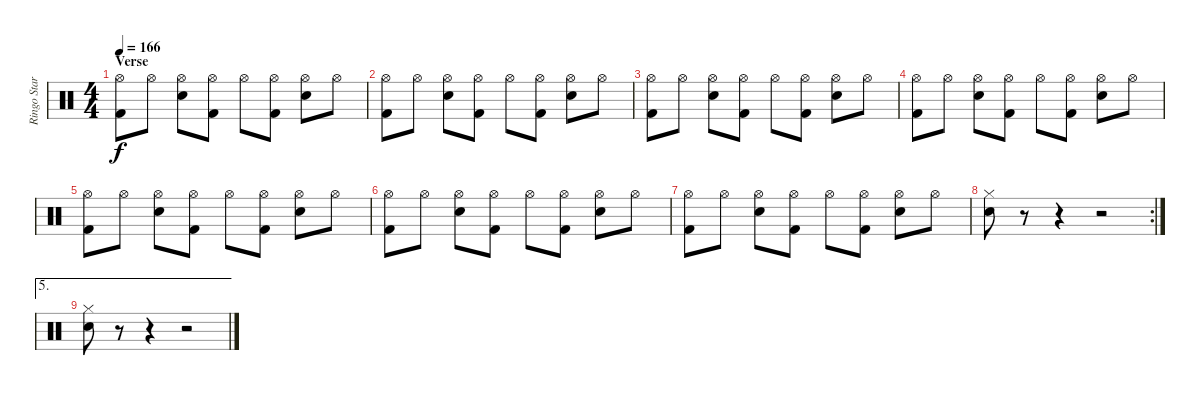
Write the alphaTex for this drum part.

\track ("Ringo Starr" "Ringo Star") {instrument percussion}
\staff {score}
\articulation defaults
\ts (4 4)
\section ("" "Verse")
\tempo 166
\clef neutral
\ks c
("Hi-Hat (open)" "Kick (hit) 2").8{dy f} "Hi-Hat (open)".8 ("Hi-Hat (open)" "Electric Snare (hit)").8 ("Hi-Hat (open)" "Kick (hit) 2").8 "Hi-Hat (open)".8 ("Hi-Hat (open)" "Kick (hit) 2").8 ("Hi-Hat (open)" "Electric Snare (hit)").8 "Hi-Hat (open)".8 |
("Hi-Hat (open)" "Kick (hit) 2").8 "Hi-Hat (open)".8 ("Hi-Hat (open)" "Electric Snare (hit)").8 ("Hi-Hat (open)" "Kick (hit) 2").8 "Hi-Hat (open)".8 ("Hi-Hat (open)" "Kick (hit) 2").8 ("Hi-Hat (open)" "Electric Snare (hit)").8 "Hi-Hat (open)".8 |
("Hi-Hat (open)" "Kick (hit) 2").8 "Hi-Hat (open)".8 ("Hi-Hat (open)" "Electric Snare (hit)").8 ("Hi-Hat (open)" "Kick (hit) 2").8 "Hi-Hat (open)".8 ("Hi-Hat (open)" "Kick (hit) 2").8 ("Hi-Hat (open)" "Electric Snare (hit)").8 "Hi-Hat (open)".8 |
("Hi-Hat (open)" "Kick (hit) 2").8 "Hi-Hat (open)".8 ("Hi-Hat (open)" "Electric Snare (hit)").8 ("Hi-Hat (open)" "Kick (hit) 2").8 "Hi-Hat (open)".8 ("Hi-Hat (open)" "Kick (hit) 2").8 ("Hi-Hat (open)" "Electric Snare (hit)").8 "Hi-Hat (open)".8 |
("Hi-Hat (open)" "Kick (hit) 2").8 "Hi-Hat (open)".8 ("Hi-Hat (open)" "Electric Snare (hit)").8 ("Hi-Hat (open)" "Kick (hit) 2").8 "Hi-Hat (open)".8 ("Hi-Hat (open)" "Kick (hit) 2").8 ("Hi-Hat (open)" "Electric Snare (hit)").8 "Hi-Hat (open)".8 |
("Hi-Hat (open)" "Kick (hit) 2").8 "Hi-Hat (open)".8 ("Hi-Hat (open)" "Electric Snare (hit)").8 ("Hi-Hat (open)" "Kick (hit) 2").8 "Hi-Hat (open)".8 ("Hi-Hat (open)" "Kick (hit) 2").8 ("Hi-Hat (open)" "Electric Snare (hit)").8 "Hi-Hat (open)".8 |
("Hi-Hat (open)" "Kick (hit) 2").8 "Hi-Hat (open)".8 ("Hi-Hat (open)" "Electric Snare (hit)").8 ("Hi-Hat (open)" "Kick (hit) 2").8 "Hi-Hat (open)".8 ("Hi-Hat (open)" "Kick (hit) 2").8 ("Hi-Hat (open)" "Electric Snare (hit)").8 "Hi-Hat (open)".8 |
\rc 2
("Hi-Hat (closed)" "Electric Snare (hit)").8 r.8 r.4 r.2 |
\ae 5
("Hi-Hat (closed)" "Electric Snare (hit)").8 r.8 r.4 r.2
